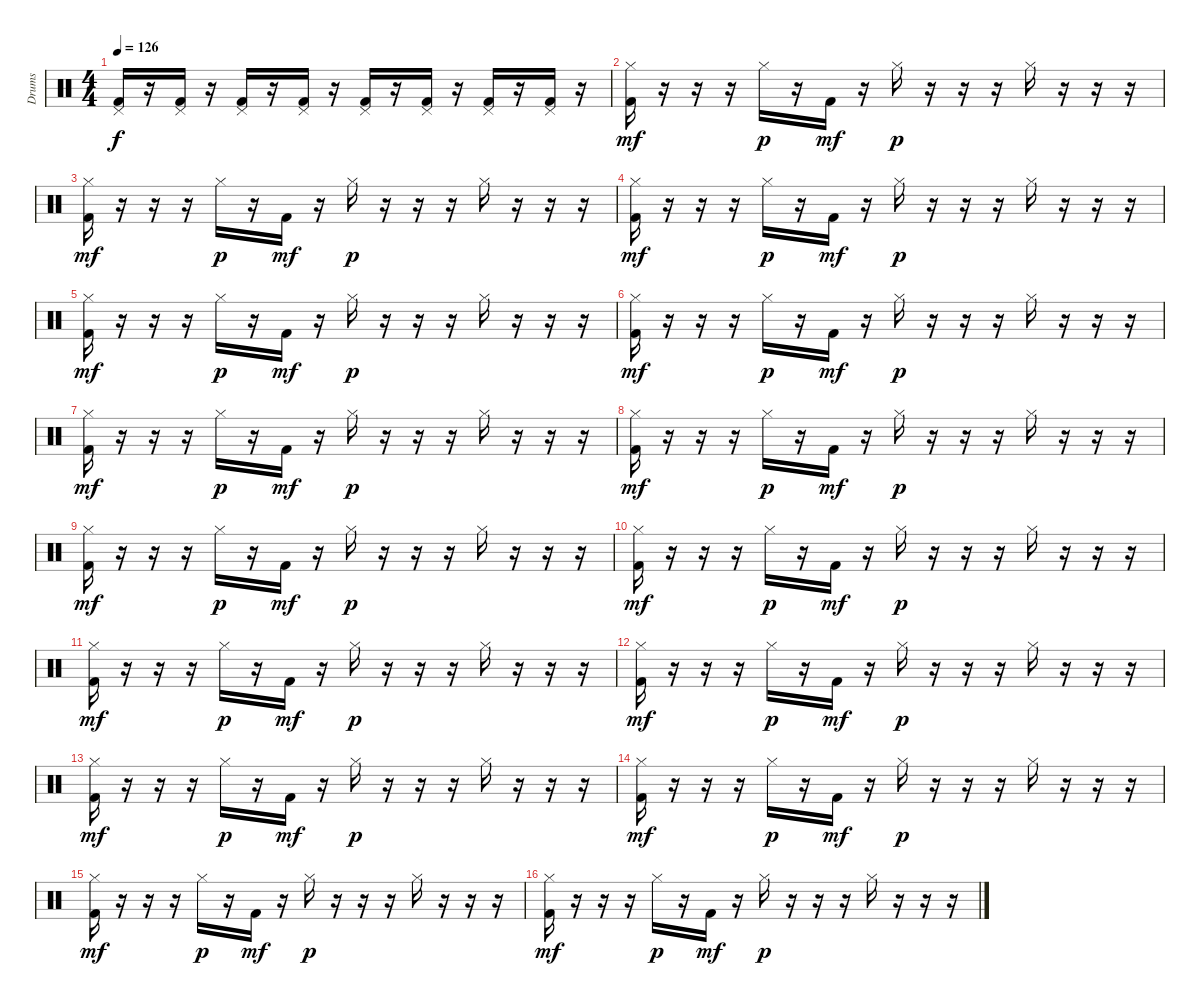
\track ("Drums" "Drums") {instrument percussion}
\staff {score}
\articulation defaults
\ts (4 4)
\tempo 126
\clef neutral
\ks c
("Pedal Hi-Hat (hit)" "Kick (hit) 2").16{dy f} r.16 ("Pedal Hi-Hat (hit)" "Kick (hit) 2").16 r.16 ("Pedal Hi-Hat (hit)" "Kick (hit) 2").16 r.16 ("Pedal Hi-Hat (hit)" "Kick (hit) 2").16 r.16 ("Pedal Hi-Hat (hit)" "Kick (hit) 2").16 r.16 ("Pedal Hi-Hat (hit)" "Kick (hit) 2").16 r.16 ("Pedal Hi-Hat (hit)" "Kick (hit) 2").16 r.16 ("Pedal Hi-Hat (hit)" "Kick (hit) 2").16 r.16 |
("Hi-Hat (closed)" "Kick (hit) 2").16{dy mf} r.16 r.16 r.16 "Hi-Hat (closed)".16{dy p} r.16 "Kick (hit) 2".16{dy mf} r.16 "Hi-Hat (closed)".16{dy p} r.16 r.16 r.16 "Hi-Hat (closed)".16 r.16 r.16 r.16 |
("Hi-Hat (closed)" "Kick (hit) 2").16{dy mf} r.16 r.16 r.16 "Hi-Hat (closed)".16{dy p} r.16 "Kick (hit) 2".16{dy mf} r.16 "Hi-Hat (closed)".16{dy p} r.16 r.16 r.16 "Hi-Hat (closed)".16 r.16 r.16 r.16 |
("Hi-Hat (closed)" "Kick (hit) 2").16{dy mf} r.16 r.16 r.16 "Hi-Hat (closed)".16{dy p} r.16 "Kick (hit) 2".16{dy mf} r.16 "Hi-Hat (closed)".16{dy p} r.16 r.16 r.16 "Hi-Hat (closed)".16 r.16 r.16 r.16 |
("Hi-Hat (closed)" "Kick (hit) 2").16{dy mf} r.16 r.16 r.16 "Hi-Hat (closed)".16{dy p} r.16 "Kick (hit) 2".16{dy mf} r.16 "Hi-Hat (closed)".16{dy p} r.16 r.16 r.16 "Hi-Hat (closed)".16 r.16 r.16 r.16 |
("Hi-Hat (closed)" "Kick (hit) 2").16{dy mf} r.16 r.16 r.16 "Hi-Hat (closed)".16{dy p} r.16 "Kick (hit) 2".16{dy mf} r.16 "Hi-Hat (closed)".16{dy p} r.16 r.16 r.16 "Hi-Hat (closed)".16 r.16 r.16 r.16 |
("Hi-Hat (closed)" "Kick (hit) 2").16{dy mf} r.16 r.16 r.16 "Hi-Hat (closed)".16{dy p} r.16 "Kick (hit) 2".16{dy mf} r.16 "Hi-Hat (closed)".16{dy p} r.16 r.16 r.16 "Hi-Hat (closed)".16 r.16 r.16 r.16 |
("Hi-Hat (closed)" "Kick (hit) 2").16{dy mf} r.16 r.16 r.16 "Hi-Hat (closed)".16{dy p} r.16 "Kick (hit) 2".16{dy mf} r.16 "Hi-Hat (closed)".16{dy p} r.16 r.16 r.16 "Hi-Hat (closed)".16 r.16 r.16 r.16 |
("Hi-Hat (closed)" "Kick (hit) 2").16{dy mf} r.16 r.16 r.16 "Hi-Hat (closed)".16{dy p} r.16 "Kick (hit) 2".16{dy mf} r.16 "Hi-Hat (closed)".16{dy p} r.16 r.16 r.16 "Hi-Hat (closed)".16 r.16 r.16 r.16 |
("Hi-Hat (closed)" "Kick (hit) 2").16{dy mf} r.16 r.16 r.16 "Hi-Hat (closed)".16{dy p} r.16 "Kick (hit) 2".16{dy mf} r.16 "Hi-Hat (closed)".16{dy p} r.16 r.16 r.16 "Hi-Hat (closed)".16 r.16 r.16 r.16 |
("Hi-Hat (closed)" "Kick (hit) 2").16{dy mf} r.16 r.16 r.16 "Hi-Hat (closed)".16{dy p} r.16 "Kick (hit) 2".16{dy mf} r.16 "Hi-Hat (closed)".16{dy p} r.16 r.16 r.16 "Hi-Hat (closed)".16 r.16 r.16 r.16 |
("Hi-Hat (closed)" "Kick (hit) 2").16{dy mf} r.16 r.16 r.16 "Hi-Hat (closed)".16{dy p} r.16 "Kick (hit) 2".16{dy mf} r.16 "Hi-Hat (closed)".16{dy p} r.16 r.16 r.16 "Hi-Hat (closed)".16 r.16 r.16 r.16 |
("Hi-Hat (closed)" "Kick (hit) 2").16{dy mf} r.16 r.16 r.16 "Hi-Hat (closed)".16{dy p} r.16 "Kick (hit) 2".16{dy mf} r.16 "Hi-Hat (closed)".16{dy p} r.16 r.16 r.16 "Hi-Hat (closed)".16 r.16 r.16 r.16 |
("Hi-Hat (closed)" "Kick (hit) 2").16{dy mf} r.16 r.16 r.16 "Hi-Hat (closed)".16{dy p} r.16 "Kick (hit) 2".16{dy mf} r.16 "Hi-Hat (closed)".16{dy p} r.16 r.16 r.16 "Hi-Hat (closed)".16 r.16 r.16 r.16 |
("Hi-Hat (closed)" "Kick (hit) 2").16{dy mf} r.16 r.16 r.16 "Hi-Hat (closed)".16{dy p} r.16 "Kick (hit) 2".16{dy mf} r.16 "Hi-Hat (closed)".16{dy p} r.16 r.16 r.16 "Hi-Hat (closed)".16 r.16 r.16 r.16 |
("Hi-Hat (closed)" "Kick (hit) 2").16{dy mf} r.16 r.16 r.16 "Hi-Hat (closed)".16{dy p} r.16 "Kick (hit) 2".16{dy mf} r.16 "Hi-Hat (closed)".16{dy p} r.16 r.16 r.16 "Hi-Hat (closed)".16 r.16 r.16 r.16
